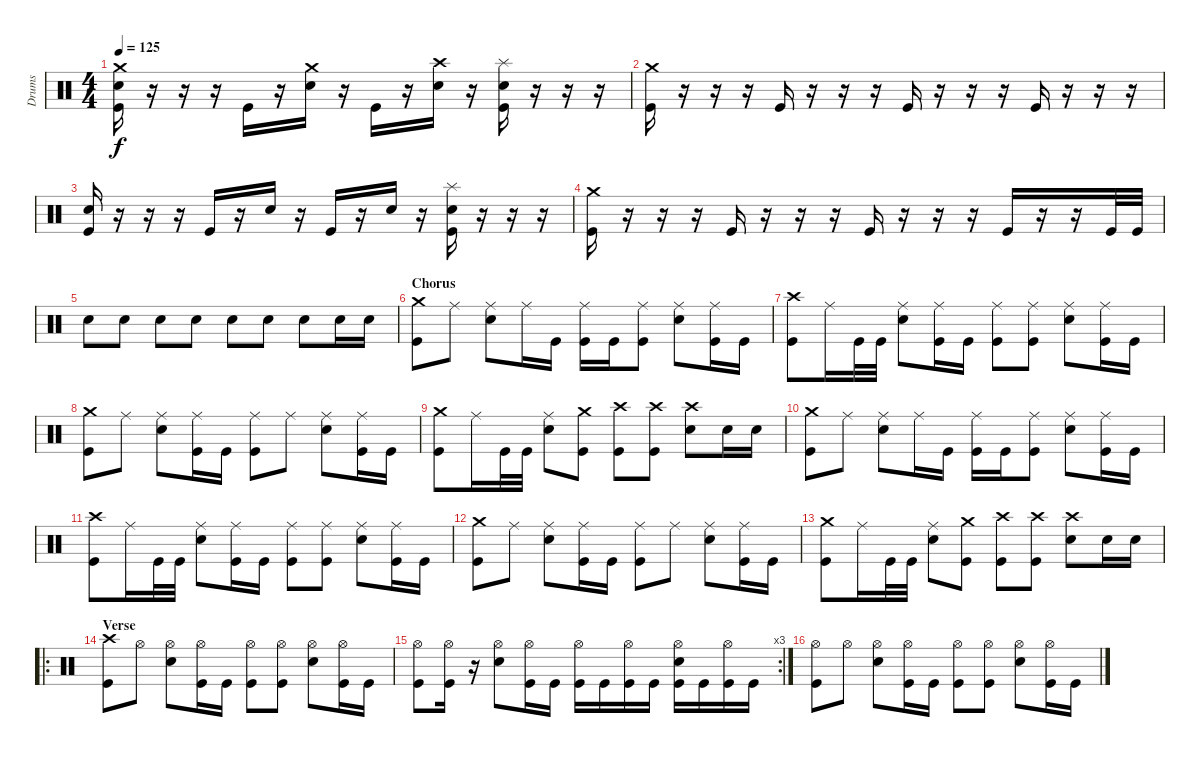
\track ("Drums" "Drums") {instrument percussion}
\staff {score}
\articulation defaults
\ts (4 4)
\tempo 125
\clef neutral
\ks c
("Crash medium (hit)" "Electric Snare (hit)" "Kick (hit)").16{dy f} r.16 r.16 r.16 "Kick (hit)".16 r.16 ("Crash medium (hit)" "Electric Snare (hit)").16 r.16 "Kick (hit)".16 r.16 ("Crash high (hit)" "Electric Snare (hit)").16 r.16 ("Splash (hit)" "Electric Snare (hit)" "Kick (hit)").16 r.16 r.16 r.16 |
("Crash medium (hit)" "Kick (hit)").16 r.16 r.16 r.16 "Kick (hit)".16 r.16 r.16 r.16 "Kick (hit)".16 r.16 r.16 r.16 "Kick (hit)".16 r.16 r.16 r.16 |
("Electric Snare (hit)" "Kick (hit)").16 r.16 r.16 r.16 "Kick (hit)".16 r.16 "Electric Snare (hit)".16 r.16 "Kick (hit)".16 r.16 "Electric Snare (hit)".16 r.16 ("Splash (hit)" "Electric Snare (hit)" "Kick (hit)").16 r.16 r.16 r.16 |
("Crash medium (hit)" "Kick (hit)").16 r.16 r.16 r.16 "Kick (hit)".16 r.16 r.16 r.16 "Kick (hit)".16 r.16 r.16 r.16 "Kick (hit)".16 r.16 r.16 "Kick (hit)".32 "Kick (hit)".32 |
"Electric Snare (hit)".8 "Electric Snare (hit)".8 "Electric Snare (hit)".8 "Electric Snare (hit)".8 "Electric Snare (hit)".8 "Electric Snare (hit)".8 "Electric Snare (hit)".8 "Electric Snare (hit)".16 "Electric Snare (hit)".16 |
\section ("" "Chorus")
("Crash medium (hit)" "Kick (hit)").8 "Ride (middle)".8 ("Ride (middle)" "Electric Snare (hit)").8 "Ride (middle)".16 "Kick (hit)".16 ("Ride (middle)" "Kick (hit)").16 "Kick (hit)".16 ("Ride (middle)" "Kick (hit)").8 ("Ride (middle)" "Electric Snare (hit)").8 ("Ride (middle)" "Kick (hit)").16 "Kick (hit)".16 |
("Crash high (hit)" "Kick (hit)").8 "Ride (middle)".16 "Kick (hit)".32 "Kick (hit)".32 ("Ride (middle)" "Electric Snare (hit)").8 ("Ride (middle)" "Kick (hit)").16 "Kick (hit)".16 ("Ride (middle)" "Kick (hit)").8 ("Ride (middle)" "Kick (hit)").8 ("Ride (middle)" "Electric Snare (hit)").8 ("Ride (middle)" "Kick (hit)").16 "Kick (hit)".16 |
("Crash medium (hit)" "Kick (hit)").8 "Ride (middle)".8 ("Ride (middle)" "Electric Snare (hit)").8 ("Ride (middle)" "Kick (hit)").16 "Kick (hit)".16 ("Ride (middle)" "Kick (hit)").8 "Ride (middle)".8 ("Ride (middle)" "Electric Snare (hit)").8 ("Ride (middle)" "Kick (hit)").16 "Kick (hit)".16 |
("Crash medium (hit)" "Kick (hit)").8 "Ride (middle)".16 "Kick (hit)".32 "Kick (hit)".32 ("Ride (middle)" "Electric Snare (hit)").8 ("Crash medium (hit)" "Kick (hit)").8 ("Crash high (hit)" "Kick (hit)").8 ("Crash high (hit)" "Kick (hit)").8 ("Crash high (hit)" "Electric Snare (hit)").8 "Electric Snare (hit)".16 "Electric Snare (hit)".16 |
("Crash medium (hit)" "Kick (hit)").8 "Ride (middle)".8 ("Ride (middle)" "Electric Snare (hit)").8 "Ride (middle)".16 "Kick (hit)".16 ("Ride (middle)" "Kick (hit)").16 "Kick (hit)".16 ("Ride (middle)" "Kick (hit)").8 ("Ride (middle)" "Electric Snare (hit)").8 ("Ride (middle)" "Kick (hit)").16 "Kick (hit)".16 |
("Crash high (hit)" "Kick (hit)").8 "Ride (middle)".16 "Kick (hit)".32 "Kick (hit)".32 ("Ride (middle)" "Electric Snare (hit)").8 ("Ride (middle)" "Kick (hit)").16 "Kick (hit)".16 ("Ride (middle)" "Kick (hit)").8 ("Ride (middle)" "Kick (hit)").8 ("Ride (middle)" "Electric Snare (hit)").8 ("Ride (middle)" "Kick (hit)").16 "Kick (hit)".16 |
("Crash medium (hit)" "Kick (hit)").8 "Ride (middle)".8 ("Ride (middle)" "Electric Snare (hit)").8 ("Ride (middle)" "Kick (hit)").16 "Kick (hit)".16 ("Ride (middle)" "Kick (hit)").8 "Ride (middle)".8 ("Ride (middle)" "Electric Snare (hit)").8 ("Ride (middle)" "Kick (hit)").16 "Kick (hit)".16 |
("Crash medium (hit)" "Kick (hit)").8 "Ride (middle)".16 "Kick (hit)".32 "Kick (hit)".32 ("Ride (middle)" "Electric Snare (hit)").8 ("Crash medium (hit)" "Kick (hit)").8 ("Crash high (hit)" "Kick (hit)").8 ("Crash high (hit)" "Kick (hit)").8 ("Crash high (hit)" "Electric Snare (hit)").8 "Electric Snare (hit)".16 "Electric Snare (hit)".16 |
\ro
\section ("" "Verse")
("Crash high (hit)" "Kick (hit)").8 "Hi-Hat (open)".8 ("Hi-Hat (open)" "Electric Snare (hit)").8 ("Hi-Hat (open)" "Kick (hit)").16 "Kick (hit)".16 ("Hi-Hat (open)" "Kick (hit)").8 ("Hi-Hat (open)" "Kick (hit)").8 ("Hi-Hat (open)" "Electric Snare (hit)").8 ("Hi-Hat (open)" "Kick (hit)").16 "Kick (hit)".16 |
\rc 3
("Hi-Hat (open)" "Kick (hit)").8 ("Hi-Hat (open)" "Kick (hit)").16 r.16 ("Hi-Hat (open)" "Electric Snare (hit)").8 ("Hi-Hat (open)" "Kick (hit)").16 "Kick (hit)".16 ("Hi-Hat (open)" "Kick (hit)").16 "Kick (hit)".16 ("Hi-Hat (open)" "Kick (hit)").16 "Kick (hit)".16 ("Hi-Hat (open)" "Electric Snare (hit)" "Kick (hit)").16 "Kick (hit)".16 ("Hi-Hat (open)" "Kick (hit)").16 "Kick (hit)".16 |
("Hi-Hat (open)" "Kick (hit)").8 "Hi-Hat (open)".8 ("Hi-Hat (open)" "Electric Snare (hit)").8 ("Hi-Hat (open)" "Kick (hit)").16 "Kick (hit)".16 ("Hi-Hat (open)" "Kick (hit)").8 ("Hi-Hat (open)" "Kick (hit)").8 ("Hi-Hat (open)" "Electric Snare (hit)").8 ("Hi-Hat (open)" "Kick (hit)").16 "Kick (hit)".16
